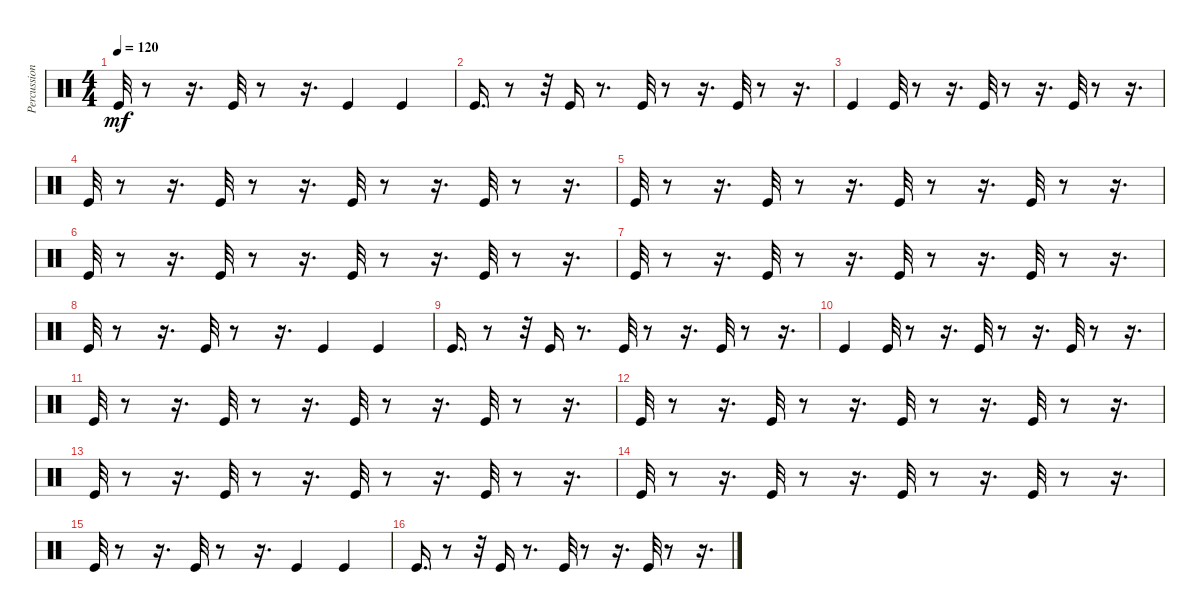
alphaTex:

\track ("Percussion" "Percussion") {instrument percussion}
\staff {score}
\articulation defaults
\ts (4 4)
\tempo 120
\clef neutral
\ks c "Kick (hit)".32{dy mf}
r.8 r.16{d} "Kick (hit)".32 r.8 r.16{d} "Kick (hit)".4 "Kick (hit)".4 |
"Kick (hit)".16{d} r.8 r.32 "Kick (hit)".16 r.8{d} "Kick (hit)".32 r.8 r.16{d} "Kick (hit)".32 r.8 r.16{d} |
"Kick (hit)".4 "Kick (hit)".32 r.8 r.16{d} "Kick (hit)".32 r.8 r.16{d} "Kick (hit)".32 r.8 r.16{d} |
"Kick (hit)".32 r.8 r.16{d} "Kick (hit)".32 r.8 r.16{d} "Kick (hit)".32 r.8 r.16{d} "Kick (hit)".32 r.8 r.16{d} |
"Kick (hit)".32 r.8 r.16{d} "Kick (hit)".32 r.8 r.16{d} "Kick (hit)".32 r.8 r.16{d} "Kick (hit)".32 r.8 r.16{d} |
"Kick (hit)".32 r.8 r.16{d} "Kick (hit)".32 r.8 r.16{d} "Kick (hit)".32 r.8 r.16{d} "Kick (hit)".32 r.8 r.16{d} |
"Kick (hit)".32 r.8 r.16{d} "Kick (hit)".32 r.8 r.16{d} "Kick (hit)".32 r.8 r.16{d} "Kick (hit)".32 r.8 r.16{d} |
"Kick (hit)".32 r.8 r.16{d} "Kick (hit)".32 r.8 r.16{d} "Kick (hit)".4 "Kick (hit)".4 |
"Kick (hit)".16{d} r.8 r.32 "Kick (hit)".16 r.8{d} "Kick (hit)".32 r.8 r.16{d} "Kick (hit)".32 r.8 r.16{d} |
"Kick (hit)".4 "Kick (hit)".32 r.8 r.16{d} "Kick (hit)".32 r.8 r.16{d} "Kick (hit)".32 r.8 r.16{d} |
"Kick (hit)".32 r.8 r.16{d} "Kick (hit)".32 r.8 r.16{d} "Kick (hit)".32 r.8 r.16{d} "Kick (hit)".32 r.8 r.16{d} |
"Kick (hit)".32 r.8 r.16{d} "Kick (hit)".32 r.8 r.16{d} "Kick (hit)".32 r.8 r.16{d} "Kick (hit)".32 r.8 r.16{d} |
"Kick (hit)".32 r.8 r.16{d} "Kick (hit)".32 r.8 r.16{d} "Kick (hit)".32 r.8 r.16{d} "Kick (hit)".32 r.8 r.16{d} |
"Kick (hit)".32 r.8 r.16{d} "Kick (hit)".32 r.8 r.16{d} "Kick (hit)".32 r.8 r.16{d} "Kick (hit)".32 r.8 r.16{d} |
"Kick (hit)".32 r.8 r.16{d} "Kick (hit)".32 r.8 r.16{d} "Kick (hit)".4 "Kick (hit)".4 |
"Kick (hit)".16{d} r.8 r.32 "Kick (hit)".16 r.8{d} "Kick (hit)".32 r.8 r.16{d} "Kick (hit)".32 r.8 r.16{d}
